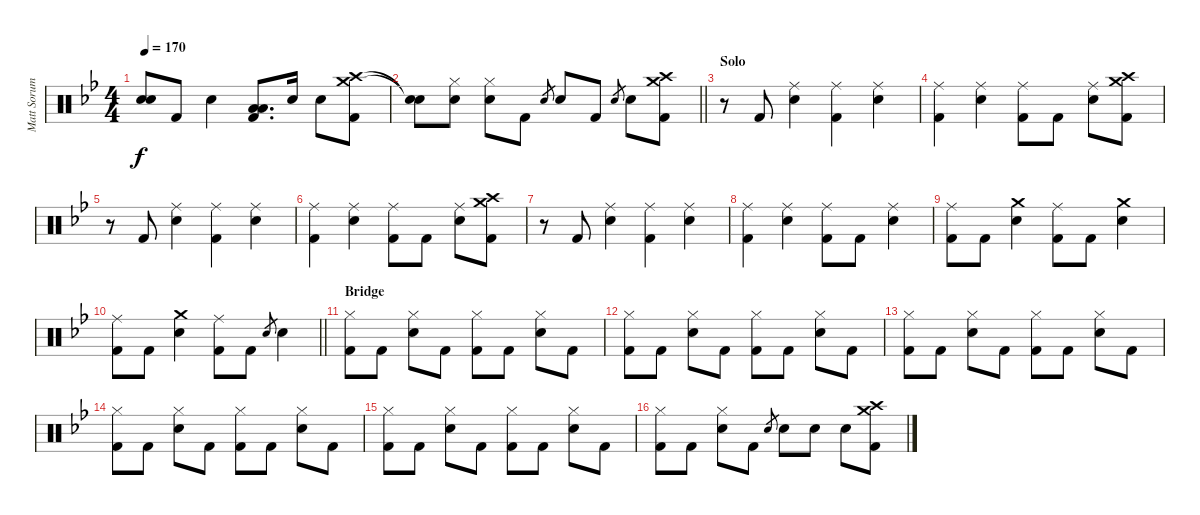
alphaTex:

\track ("Matt Sorum - Drums" "Matt Sorum") {instrument percussion}
\staff {score}
\articulation defaults
\ts (4 4)
\tempo 170
\clef neutral
\ks bb
("Snare (hit)"{t} "Snare (hit)"{t}).8{dy f} "Kick (hit) 2".8 "Snare (hit) 2".4 ("Low Tom (hit)" "Low Tom (hit)" "Kick (hit) 2").8{d} "Snare (hit) 2".16 "Snare (hit) 2".8 ("Crash medium (hit)" "Crash high (hit)" "Kick (hit) 2").8 |
\barLineRight lightlight
("Snare (hit)"{t} "Snare (hit)"{t}).8 ("Hi-Hat (closed)" "Snare (hit) 2").8 ("Hi-Hat (closed)" "Snare (hit) 2").8 "Kick (hit) 2".8 "Snare (hit) 2".8{gr} "Snare (hit) 2".8 "Kick (hit) 2".8 "Snare (hit) 2".8{gr} "Snare (hit) 2".8 ("Crash medium (hit)" "Crash high (hit)" "Kick (hit) 2").8 |
\section ("" "Solo")
r.8 "Kick (hit) 2".8 ("Ride (middle)" "Snare (hit) 2").4 ("Ride (middle)" "Kick (hit) 2").4 ("Ride (middle)" "Snare (hit) 2").4 |
("Ride (middle)" "Kick (hit) 2").4 ("Ride (middle)" "Snare (hit) 2").4 ("Ride (middle)" "Kick (hit) 2").8 "Kick (hit) 2".8 ("Ride (middle)" "Snare (hit) 2").8 ("Crash medium (hit)" "Crash high (hit)" "Kick (hit) 2").8 |
r.8 "Kick (hit) 2".8 ("Ride (middle)" "Snare (hit) 2").4 ("Ride (middle)" "Kick (hit) 2").4 ("Ride (middle)" "Snare (hit) 2").4 |
("Ride (middle)" "Kick (hit) 2").4 ("Ride (middle)" "Snare (hit) 2").4 ("Ride (middle)" "Kick (hit) 2").8 "Kick (hit) 2".8 ("Ride (middle)" "Snare (hit) 2").8 ("Crash medium (hit)" "Crash high (hit)" "Kick (hit) 2").8 |
r.8 "Kick (hit) 2".8 ("Ride (middle)" "Snare (hit) 2").4 ("Ride (middle)" "Kick (hit) 2").4 ("Ride (middle)" "Snare (hit) 2").4 |
("Ride (middle)" "Kick (hit) 2").4 ("Ride (middle)" "Snare (hit) 2").4 ("Ride (middle)" "Kick (hit) 2").8 "Kick (hit) 2".8 ("Ride (middle)" "Snare (hit) 2").4 |
("Ride (middle)" "Kick (hit) 2").8 "Kick (hit) 2".8 ("Crash medium (hit)" "Snare (hit) 2").4 ("Ride (middle)" "Kick (hit) 2").8 "Kick (hit) 2".8 ("Crash medium (hit)" "Snare (hit) 2").4 |
\barLineRight lightlight
("Ride (middle)" "Kick (hit) 2").8 "Kick (hit) 2".8 ("Crash medium (hit)" "Snare (hit) 2").4 ("Ride (middle)" "Kick (hit) 2").8 "Kick (hit) 2".8 "Snare (hit) 2".8{gr} "Snare (hit) 2".4 |
\section ("" "Bridge")
("Hi-Hat (closed)" "Kick (hit) 2").8 "Kick (hit) 2".8 ("Hi-Hat (closed)" "Snare (hit) 2").8 "Kick (hit) 2".8 ("Hi-Hat (closed)" "Kick (hit) 2").8 "Kick (hit) 2".8 ("Hi-Hat (closed)" "Snare (hit) 2").8 "Kick (hit) 2".8 |
("Hi-Hat (closed)" "Kick (hit) 2").8 "Kick (hit) 2".8 ("Hi-Hat (closed)" "Snare (hit) 2").8 "Kick (hit) 2".8 ("Hi-Hat (closed)" "Kick (hit) 2").8 "Kick (hit) 2".8 ("Hi-Hat (closed)" "Snare (hit) 2").8 "Kick (hit) 2".8 |
("Hi-Hat (closed)" "Kick (hit) 2").8 "Kick (hit) 2".8 ("Hi-Hat (closed)" "Snare (hit) 2").8 "Kick (hit) 2".8 ("Hi-Hat (closed)" "Kick (hit) 2").8 "Kick (hit) 2".8 ("Hi-Hat (closed)" "Snare (hit) 2").8 "Kick (hit) 2".8 |
("Hi-Hat (closed)" "Kick (hit) 2").8 "Kick (hit) 2".8 ("Hi-Hat (closed)" "Snare (hit) 2").8 "Kick (hit) 2".8 ("Hi-Hat (closed)" "Kick (hit) 2").8 "Kick (hit) 2".8 ("Hi-Hat (closed)" "Snare (hit) 2").8 "Kick (hit) 2".8 |
("Hi-Hat (closed)" "Kick (hit) 2").8 "Kick (hit) 2".8 ("Hi-Hat (closed)" "Snare (hit) 2").8 "Kick (hit) 2".8 ("Hi-Hat (closed)" "Kick (hit) 2").8 "Kick (hit) 2".8 ("Hi-Hat (closed)" "Snare (hit) 2").8 "Kick (hit) 2".8 |
("Hi-Hat (closed)" "Kick (hit) 2").8 "Kick (hit) 2".8 ("Hi-Hat (closed)" "Snare (hit) 2").8 "Kick (hit) 2".8 "Snare (hit) 2".8{gr} "Snare (hit) 2".8 "Snare (hit) 2".8 "Snare (hit) 2".8 ("Crash medium (hit)" "Crash high (hit)" "Kick (hit) 2").8
